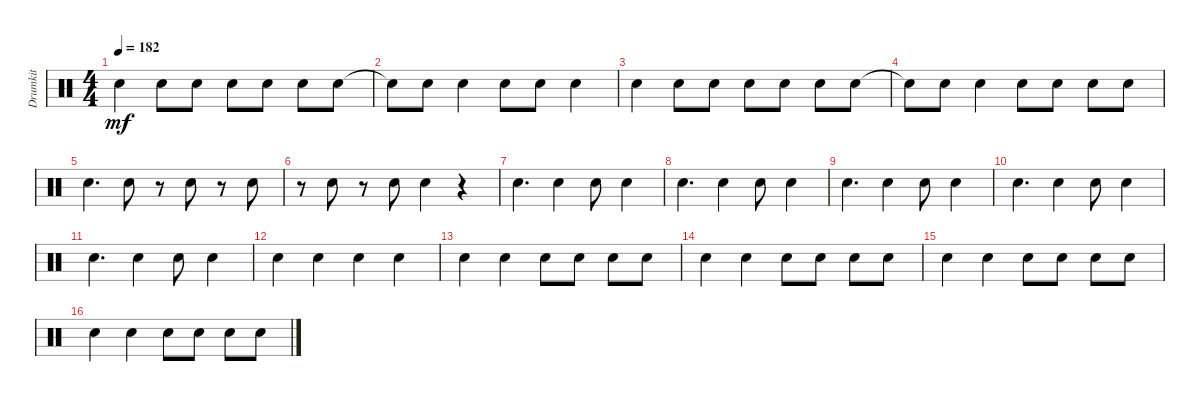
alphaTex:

\track ("Drumkit" "Drumkit") {instrument percussion}
\staff {score}
\articulation defaults
\ts (4 4)
\tempo 182
\clef neutral
\ks c "Snare (hit)".4{dy mf} "Snare (hit)".8 "Snare (hit)".8 "Snare (hit)".8 "Snare (hit)".8 "Snare (hit)".8 "Snare (hit)".8
|
"Snare (hit)"{t}.8 "Snare (hit)".8 "Snare (hit)".4 "Snare (hit)".8 "Snare (hit)".8 "Snare (hit)".4 |
"Snare (hit)".4 "Snare (hit)".8 "Snare (hit)".8 "Snare (hit)".8 "Snare (hit)".8 "Snare (hit)".8 "Snare (hit)".8 |
"Snare (hit)"{t}.8 "Snare (hit)".8 "Snare (hit)".4 "Snare (hit)".8 "Snare (hit)".8 "Snare (hit)".8 "Snare (hit)".8 |
"Snare (hit)".4{d} "Snare (hit)".8 r.8 "Snare (hit)".8 r.8 "Snare (hit)".8 |
r.8 "Snare (hit)".8 r.8 "Snare (hit)".8 "Snare (hit)".4 r.4 |
"Snare (hit)".4{d} "Snare (hit)".4 "Snare (hit)".8 "Snare (hit)".4 |
"Snare (hit)".4{d} "Snare (hit)".4 "Snare (hit)".8 "Snare (hit)".4 |
"Snare (hit)".4{d} "Snare (hit)".4 "Snare (hit)".8 "Snare (hit)".4 |
"Snare (hit)".4{d} "Snare (hit)".4 "Snare (hit)".8 "Snare (hit)".4 |
"Snare (hit)".4{d} "Snare (hit)".4 "Snare (hit)".8 "Snare (hit)".4 |
"Snare (hit)".4 "Snare (hit)".4 "Snare (hit)".4 "Snare (hit)".4 |
"Snare (hit)".4 "Snare (hit)".4 "Snare (hit)".8 "Snare (hit)".8 "Snare (hit)".8 "Snare (hit)".8 |
"Snare (hit)".4 "Snare (hit)".4 "Snare (hit)".8 "Snare (hit)".8 "Snare (hit)".8 "Snare (hit)".8 |
"Snare (hit)".4 "Snare (hit)".4 "Snare (hit)".8 "Snare (hit)".8 "Snare (hit)".8 "Snare (hit)".8 |
"Snare (hit)".4 "Snare (hit)".4 "Snare (hit)".8 "Snare (hit)".8 "Snare (hit)".8 "Snare (hit)".8
